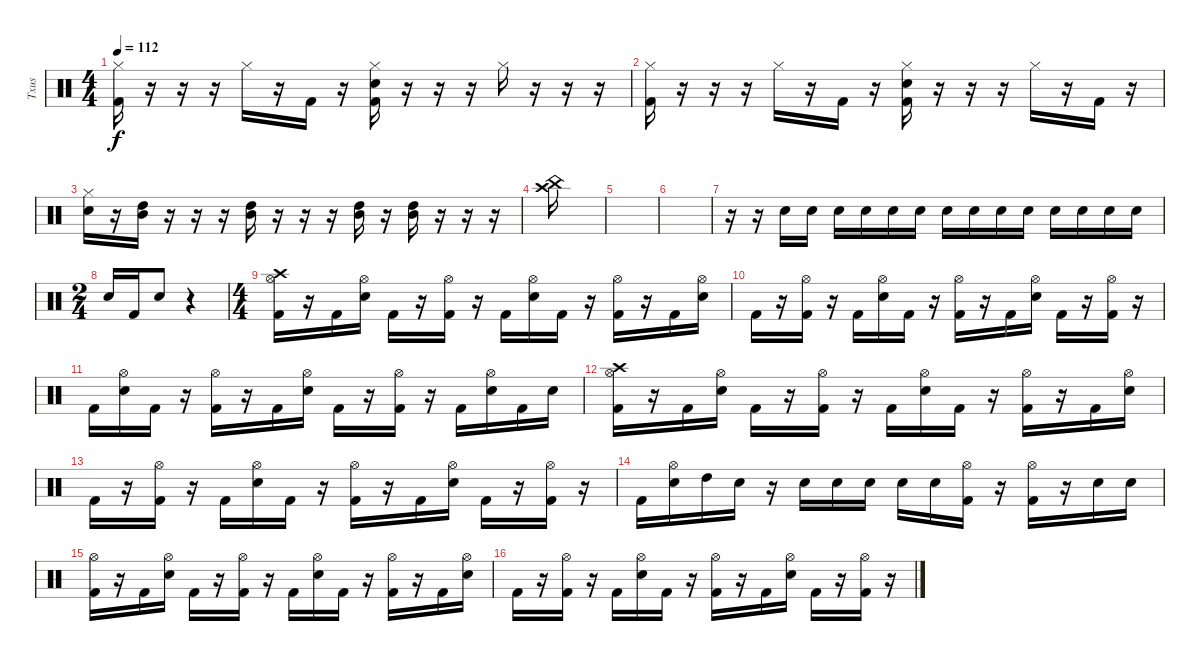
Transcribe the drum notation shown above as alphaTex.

\track ("Txus" "Txus") {instrument percussion}
\staff {score}
\articulation defaults
\ts (4 4)
\tempo 112
\clef neutral
\ks c
("Hi-Hat (closed)" "Kick (hit) 2").16{dy f} r.16 r.16 r.16 "Hi-Hat (closed)".16 r.16 "Kick (hit) 2".16 r.16 ("Hi-Hat (closed)" "Electric Snare (hit)" "Kick (hit) 2").16 r.16 r.16 r.16 "Hi-Hat (closed)".16 r.16 r.16 r.16 |
("Hi-Hat (closed)" "Kick (hit) 2").16 r.16 r.16 r.16 "Hi-Hat (closed)".16 r.16 "Kick (hit) 2".16 r.16 ("Hi-Hat (closed)" "Electric Snare (hit)" "Kick (hit) 2").16 r.16 r.16 r.16 "Hi-Hat (closed)".16 r.16 "Kick (hit) 2".16 r.16 |
("Electric Snare (hit)" "Hi-Hat (closed)").16 r.16 ("High Tom (hit)" "Mid Tom (hit)").16 r.16 r.16 r.16 ("High Tom (hit)" "Mid Tom (hit)").16 r.16 r.16 r.16 ("High Tom (hit)" "Mid Tom (hit)").16 r.16 ("High Tom (hit)" "Mid Tom (hit)").16 r.16 r.16 r.16 |
("Crash high (hit)" "China (hit)").16 |
|
|
r.16 r.16 "Electric Snare (hit)".16 "Electric Snare (hit)".16 "Electric Snare (hit)".16 "Electric Snare (hit)".16 "Electric Snare (hit)".16 "Electric Snare (hit)".16 "Electric Snare (hit)".16 "Electric Snare (hit)".16 "Electric Snare (hit)".16 "Electric Snare (hit)".16 "Electric Snare (hit)".16 "Electric Snare (hit)".16 "Electric Snare (hit)".16 "Electric Snare (hit)".16 |
\ts (2 4)
"Electric Snare (hit)".16 "Kick (hit) 2".16 "Electric Snare (hit)".8 r.4 |
\ts (4 4)
("Kick (hit) 2" "Hi-Hat (open)" "Crash high (hit)").16 r.16 "Kick (hit) 2".16 ("Hi-Hat (open)" "Electric Snare (hit)").16 "Kick (hit) 2".16 r.16 ("Kick (hit) 2" "Hi-Hat (open)").16 r.16 "Kick (hit) 2".16 ("Hi-Hat (open)" "Electric Snare (hit)").16 "Kick (hit) 2".16 r.16 ("Kick (hit) 2" "Hi-Hat (open)").16 r.16 "Kick (hit) 2".16 ("Hi-Hat (open)" "Electric Snare (hit)").16 |
"Kick (hit) 2".16 r.16 ("Kick (hit) 2" "Hi-Hat (open)").16 r.16 "Kick (hit) 2".16 ("Hi-Hat (open)" "Electric Snare (hit)").16 "Kick (hit) 2".16 r.16 ("Kick (hit) 2" "Hi-Hat (open)").16 r.16 "Kick (hit) 2".16 ("Hi-Hat (open)" "Electric Snare (hit)").16 "Kick (hit) 2".16 r.16 ("Kick (hit) 2" "Hi-Hat (open)").16 r.16 |
"Kick (hit) 2".16 ("Hi-Hat (open)" "Electric Snare (hit)").16 "Kick (hit) 2".16 r.16 ("Kick (hit) 2" "Hi-Hat (open)").16 r.16 "Kick (hit) 2".16 ("Hi-Hat (open)" "Electric Snare (hit)").16 "Kick (hit) 2".16 r.16 ("Kick (hit) 2" "Hi-Hat (open)").16 r.16 "Kick (hit) 2".16 ("Hi-Hat (open)" "Electric Snare (hit)").16 "Kick (hit) 2".16 "Electric Snare (hit)".16 |
("Kick (hit) 2" "Hi-Hat (open)" "Crash high (hit)").16 r.16 "Kick (hit) 2".16 ("Hi-Hat (open)" "Electric Snare (hit)").16 "Kick (hit) 2".16 r.16 ("Kick (hit) 2" "Hi-Hat (open)").16 r.16 "Kick (hit) 2".16 ("Hi-Hat (open)" "Electric Snare (hit)").16 "Kick (hit) 2".16 r.16 ("Kick (hit) 2" "Hi-Hat (open)").16 r.16 "Kick (hit) 2".16 ("Hi-Hat (open)" "Electric Snare (hit)").16 |
"Kick (hit) 2".16 r.16 ("Kick (hit) 2" "Hi-Hat (open)").16 r.16 "Kick (hit) 2".16 ("Hi-Hat (open)" "Electric Snare (hit)").16 "Kick (hit) 2".16 r.16 ("Kick (hit) 2" "Hi-Hat (open)").16 r.16 "Kick (hit) 2".16 ("Hi-Hat (open)" "Electric Snare (hit)").16 "Kick (hit) 2".16 r.16 ("Kick (hit) 2" "Hi-Hat (open)").16 r.16 |
"Kick (hit) 2".16 ("Hi-Hat (open)" "Electric Snare (hit)").16 "High Tom (hit)".16 "Electric Snare (hit)".16 r.16 "Electric Snare (hit)".16 "Electric Snare (hit)".16 "Electric Snare (hit)".16 "Electric Snare (hit)".16 "Electric Snare (hit)".16 ("Hi-Hat (open)" "Kick (hit) 2").16 r.16 ("Hi-Hat (open)" "Kick (hit) 2").16 r.16 "Electric Snare (hit)".16 "Electric Snare (hit)".16 |
("Kick (hit) 2" "Hi-Hat (open)").16 r.16 "Kick (hit) 2".16 ("Hi-Hat (open)" "Electric Snare (hit)").16 "Kick (hit) 2".16 r.16 ("Kick (hit) 2" "Hi-Hat (open)").16 r.16 "Kick (hit) 2".16 ("Hi-Hat (open)" "Electric Snare (hit)").16 "Kick (hit) 2".16 r.16 ("Kick (hit) 2" "Hi-Hat (open)").16 r.16 "Kick (hit) 2".16 ("Hi-Hat (open)" "Electric Snare (hit)").16 |
"Kick (hit) 2".16 r.16 ("Kick (hit) 2" "Hi-Hat (open)").16 r.16 "Kick (hit) 2".16 ("Hi-Hat (open)" "Electric Snare (hit)").16 "Kick (hit) 2".16 r.16 ("Kick (hit) 2" "Hi-Hat (open)").16 r.16 "Kick (hit) 2".16 ("Hi-Hat (open)" "Electric Snare (hit)").16 "Kick (hit) 2".16 r.16 ("Kick (hit) 2" "Hi-Hat (open)").16 r.16
